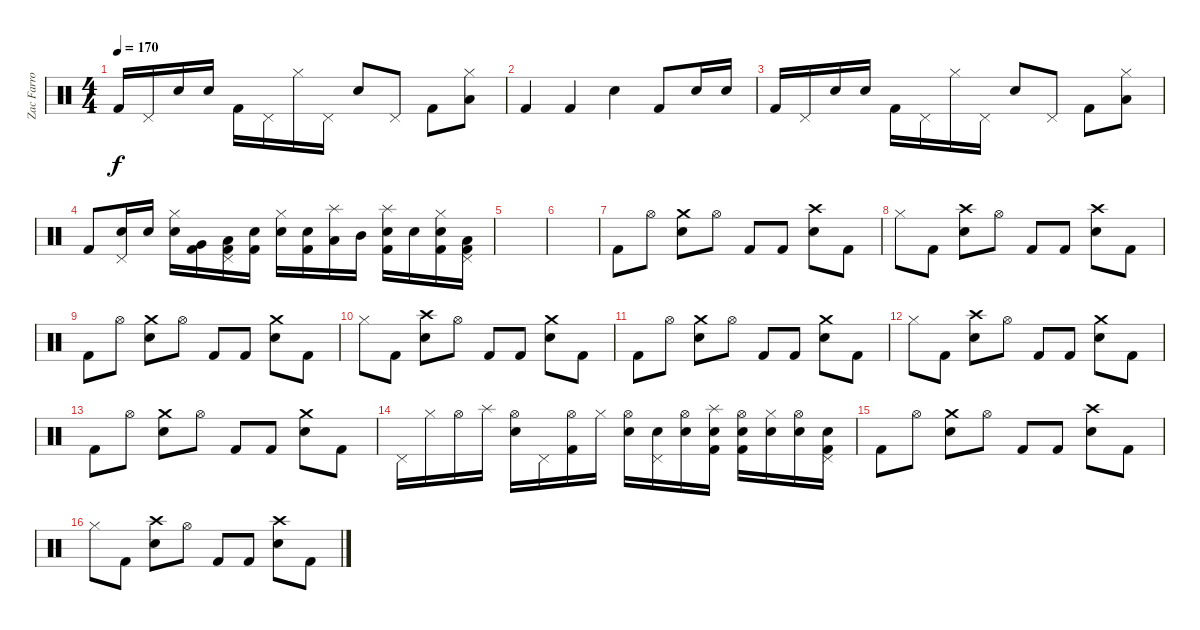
\track ("Zac Farro Drums" "Zac Farro ") {instrument percussion}
\staff {score}
\articulation defaults
\ts (4 4)
\tempo 170
\clef neutral
\ks c "Kick (hit) 2".16{dy f} "Pedal Hi-Hat (hit)".16 "Electric Snare (hit)".16 "Electric Snare (hit)".16 "Kick (hit) 2".16 "Pedal Hi-Hat (hit)".16 "Hi-Hat (closed)".16 "Pedal Hi-Hat (hit)".16 "Electric Snare (hit)".8 "Pedal Hi-Hat (hit)".8 "Kick (hit) 2".8
("Hi-Hat (closed)" "Low Tom (hit)").8 |
"Kick (hit) 2".4 "Kick (hit) 2".4 "Electric Snare (hit)".4 "Kick (hit) 2".8 "Electric Snare (hit)".16 "Electric Snare (hit)".16 |
"Kick (hit) 2".16 "Pedal Hi-Hat (hit)".16 "Electric Snare (hit)".16 "Electric Snare (hit)".16 "Kick (hit) 2".16 "Pedal Hi-Hat (hit)".16 "Hi-Hat (closed)".16 "Pedal Hi-Hat (hit)".16 "Electric Snare (hit)".8 "Pedal Hi-Hat (hit)".8 "Kick (hit) 2".8 ("Hi-Hat (closed)" "Low Tom (hit)").8 |
"Kick (hit) 2".8 ("Pedal Hi-Hat (hit)" "Electric Snare (hit)").16 "Electric Snare (hit)".16 ("Hi-Hat (closed)" "Electric Snare (hit)").16 ("Very Low Tom (hit)" "Kick (hit) 2").16 ("Pedal Hi-Hat (hit)" "Low Tom (hit)" "Kick (hit) 2").16 ("Electric Snare (hit)" "Kick (hit) 2").16 ("Hi-Hat (closed)" "Electric Snare (hit)").16 ("Electric Snare (hit)" "Kick (hit) 2").16 ("Splash (hit)" "Low Tom (hit)").16 "Mid Tom (hit)".16 ("Splash (hit)" "Electric Snare (hit)" "Kick (hit) 2").16 "Electric Snare (hit)".16 ("Hi-Hat (closed)" "Electric Snare (hit)" "Kick (hit) 2").16 ("Pedal Hi-Hat (hit)" "Low Tom (hit)" "Kick (hit) 2").16 |
|
|
"Kick (hit) 2".8 "Hi-Hat (open)".8 ("Crash medium (hit)" "Electric Snare (hit)").8 "Hi-Hat (open)".8 "Kick (hit) 2".8 "Kick (hit) 2".8 ("Crash high (hit)" "Electric Snare (hit)").8 "Kick (hit) 2".8 |
"Hi-Hat (closed)".8 "Kick (hit) 2".8 ("Crash high (hit)" "Electric Snare (hit)").8 "Hi-Hat (open)".8 "Kick (hit) 2".8 "Kick (hit) 2".8 ("Crash high (hit)" "Electric Snare (hit)").8 "Kick (hit) 2".8 |
"Kick (hit) 2".8 "Hi-Hat (open)".8 ("Crash medium (hit)" "Electric Snare (hit)").8 "Hi-Hat (open)".8 "Kick (hit) 2".8 "Kick (hit) 2".8 ("Crash medium (hit)" "Electric Snare (hit)").8 "Kick (hit) 2".8 |
"Hi-Hat (closed)".8 "Kick (hit) 2".8 ("Crash high (hit)" "Electric Snare (hit)").8 "Hi-Hat (open)".8 "Kick (hit) 2".8 "Kick (hit) 2".8 ("Crash medium (hit)" "Electric Snare (hit)").8 "Kick (hit) 2".8 |
"Kick (hit) 2".8 "Hi-Hat (open)".8 ("Crash medium (hit)" "Electric Snare (hit)").8 "Hi-Hat (open)".8 "Kick (hit) 2".8 "Kick (hit) 2".8 ("Crash medium (hit)" "Electric Snare (hit)").8 "Kick (hit) 2".8 |
"Hi-Hat (closed)".8 "Kick (hit) 2".8 ("Crash high (hit)" "Electric Snare (hit)").8 "Hi-Hat (open)".8 "Kick (hit) 2".8 "Kick (hit) 2".8 ("Crash medium (hit)" "Electric Snare (hit)").8 "Kick (hit) 2".8 |
"Kick (hit) 2".8 "Hi-Hat (open)".8 ("Crash medium (hit)" "Electric Snare (hit)").8 "Hi-Hat (open)".8 "Kick (hit) 2".8 "Kick (hit) 2".8 ("Crash medium (hit)" "Electric Snare (hit)").8 "Kick (hit) 2".8 |
"Pedal Hi-Hat (hit)".16 "Hi-Hat (closed)".16 "Hi-Hat (open)".16 "Splash (hit)".16 ("Electric Snare (hit)" "Hi-Hat (open)").16 "Pedal Hi-Hat (hit)".16 ("Kick (hit) 2" "Hi-Hat (open)").16 "Hi-Hat (closed)".16 ("Electric Snare (hit)" "Hi-Hat (open)").16 ("Pedal Hi-Hat (hit)" "Electric Snare (hit)").16 ("Electric Snare (hit)" "Hi-Hat (open)").16 ("Splash (hit)" "Electric Snare (hit)" "Kick (hit) 2").16 ("Electric Snare (hit)" "Kick (hit) 2" "Hi-Hat (open)").16 ("Hi-Hat (closed)" "Electric Snare (hit)").16 ("Electric Snare (hit)" "Hi-Hat (open)").16 ("Pedal Hi-Hat (hit)" "Electric Snare (hit)" "Kick (hit) 2").16 |
"Kick (hit) 2".8 "Hi-Hat (open)".8 ("Crash medium (hit)" "Electric Snare (hit)").8 "Hi-Hat (open)".8 "Kick (hit) 2".8 "Kick (hit) 2".8 ("Crash high (hit)" "Electric Snare (hit)").8 "Kick (hit) 2".8 |
"Hi-Hat (closed)".8 "Kick (hit) 2".8 ("Crash high (hit)" "Electric Snare (hit)").8 "Hi-Hat (open)".8 "Kick (hit) 2".8 "Kick (hit) 2".8 ("Crash high (hit)" "Electric Snare (hit)").8 "Kick (hit) 2".8
